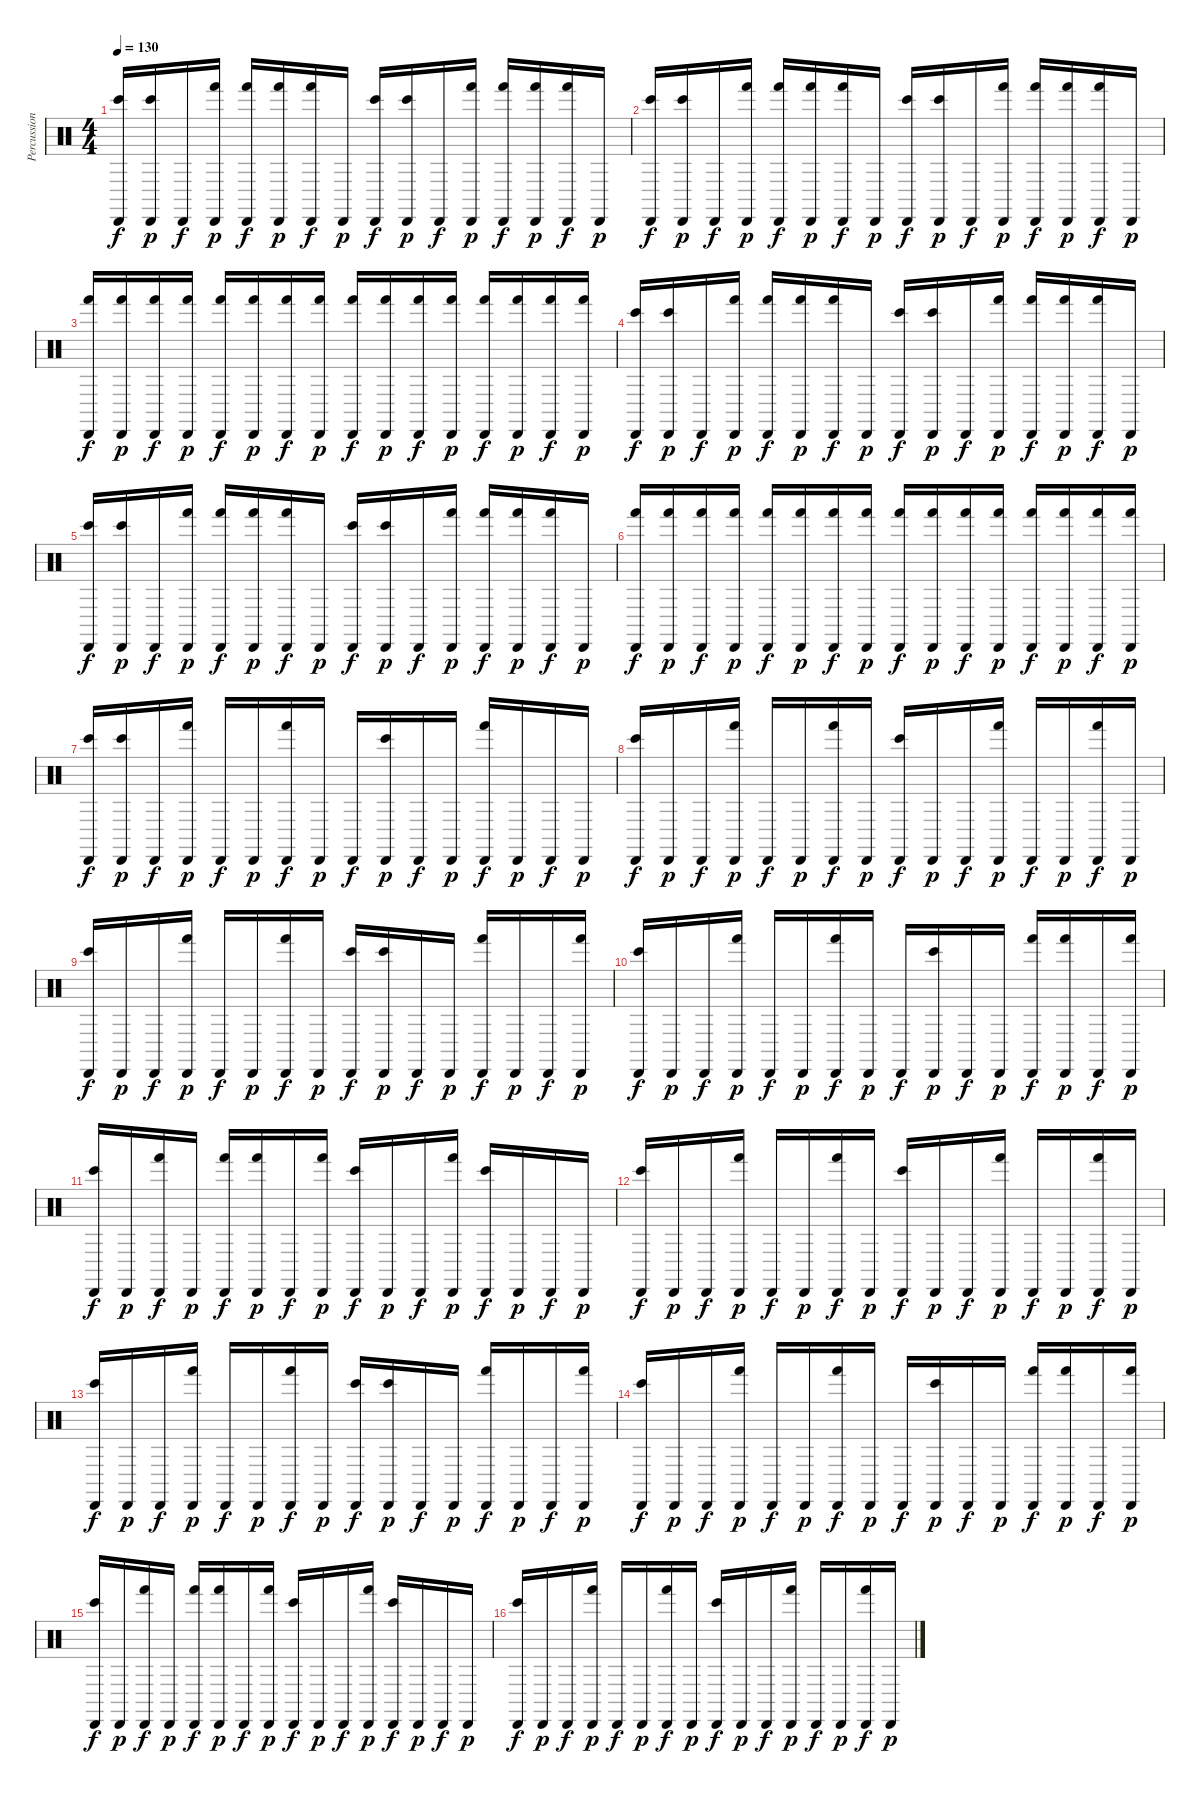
\track ("Percussion" "Percussion") {instrument percussion}
\staff {score}
\articulation defaults
\ts (4 4)
\tempo 130
\clef neutral
\ks c
("Cabasa (hit)" "Bongo High (hit)").16{dy f} ("Cabasa (hit)" "Bongo High (hit)").16{dy p} "Cabasa (hit)".16{dy f} ("Cabasa (hit)" "Hand (hit)").16{dy p} ("Cabasa (hit)" "Hand (hit)").16{dy f} ("Cabasa (hit)" "Hand (hit)").16{dy p} ("Cabasa (hit)" "Hand (hit)").16{dy f} "Cabasa (hit)".16{dy p} ("Cabasa (hit)" "Bongo High (hit)").16{dy f} ("Cabasa (hit)" "Bongo High (hit)").16{dy p} "Cabasa (hit)".16{dy f} ("Cabasa (hit)" "Hand (hit)").16{dy p} ("Cabasa (hit)" "Hand (hit)").16{dy f} ("Cabasa (hit)" "Hand (hit)").16{dy p} ("Cabasa (hit)" "Hand (hit)").16{dy f} "Cabasa (hit)".16{dy p} |
("Cabasa (hit)" "Bongo High (hit)").16{dy f} ("Cabasa (hit)" "Bongo High (hit)").16{dy p} "Cabasa (hit)".16{dy f} ("Cabasa (hit)" "Hand (hit)").16{dy p} ("Cabasa (hit)" "Hand (hit)").16{dy f} ("Cabasa (hit)" "Hand (hit)").16{dy p} ("Cabasa (hit)" "Hand (hit)").16{dy f} "Cabasa (hit)".16{dy p} ("Cabasa (hit)" "Bongo High (hit)").16{dy f} ("Cabasa (hit)" "Bongo High (hit)").16{dy p} "Cabasa (hit)".16{dy f} ("Cabasa (hit)" "Hand (hit)").16{dy p} ("Cabasa (hit)" "Hand (hit)").16{dy f} ("Cabasa (hit)" "Hand (hit)").16{dy p} ("Cabasa (hit)" "Hand (hit)").16{dy f} "Cabasa (hit)".16{dy p} |
("Cabasa (hit)" "Hand (hit)").16{dy f} ("Cabasa (hit)" "Hand (hit)").16{dy p} ("Cabasa (hit)" "Hand (hit)").16{dy f} ("Cabasa (hit)" "Hand (hit)").16{dy p} ("Cabasa (hit)" "Hand (hit)").16{dy f} ("Cabasa (hit)" "Hand (hit)").16{dy p} ("Cabasa (hit)" "Hand (hit)").16{dy f} ("Cabasa (hit)" "Hand (hit)").16{dy p} ("Cabasa (hit)" "Hand (hit)").16{dy f} ("Cabasa (hit)" "Hand (hit)").16{dy p} ("Cabasa (hit)" "Hand (hit)").16{dy f} ("Cabasa (hit)" "Hand (hit)").16{dy p} ("Cabasa (hit)" "Hand (hit)").16{dy f} ("Cabasa (hit)" "Hand (hit)").16{dy p} ("Cabasa (hit)" "Hand (hit)").16{dy f} ("Cabasa (hit)" "Hand (hit)").16{dy p} |
("Cabasa (hit)" "Bongo High (hit)").16{dy f} ("Cabasa (hit)" "Bongo High (hit)").16{dy p} "Cabasa (hit)".16{dy f} ("Cabasa (hit)" "Hand (hit)").16{dy p} ("Cabasa (hit)" "Hand (hit)").16{dy f} ("Cabasa (hit)" "Hand (hit)").16{dy p} ("Cabasa (hit)" "Hand (hit)").16{dy f} "Cabasa (hit)".16{dy p} ("Cabasa (hit)" "Bongo High (hit)").16{dy f} ("Cabasa (hit)" "Bongo High (hit)").16{dy p} "Cabasa (hit)".16{dy f} ("Cabasa (hit)" "Hand (hit)").16{dy p} ("Cabasa (hit)" "Hand (hit)").16{dy f} ("Cabasa (hit)" "Hand (hit)").16{dy p} ("Cabasa (hit)" "Hand (hit)").16{dy f} "Cabasa (hit)".16{dy p} |
("Cabasa (hit)" "Bongo High (hit)").16{dy f} ("Cabasa (hit)" "Bongo High (hit)").16{dy p} "Cabasa (hit)".16{dy f} ("Cabasa (hit)" "Hand (hit)").16{dy p} ("Cabasa (hit)" "Hand (hit)").16{dy f} ("Cabasa (hit)" "Hand (hit)").16{dy p} ("Cabasa (hit)" "Hand (hit)").16{dy f} "Cabasa (hit)".16{dy p} ("Cabasa (hit)" "Bongo High (hit)").16{dy f} ("Cabasa (hit)" "Bongo High (hit)").16{dy p} "Cabasa (hit)".16{dy f} ("Cabasa (hit)" "Hand (hit)").16{dy p} ("Cabasa (hit)" "Hand (hit)").16{dy f} ("Cabasa (hit)" "Hand (hit)").16{dy p} ("Cabasa (hit)" "Hand (hit)").16{dy f} "Cabasa (hit)".16{dy p} |
("Cabasa (hit)" "Hand (hit)").16{dy f} ("Cabasa (hit)" "Hand (hit)").16{dy p} ("Cabasa (hit)" "Hand (hit)").16{dy f} ("Cabasa (hit)" "Hand (hit)").16{dy p} ("Cabasa (hit)" "Hand (hit)").16{dy f} ("Cabasa (hit)" "Hand (hit)").16{dy p} ("Cabasa (hit)" "Hand (hit)").16{dy f} ("Cabasa (hit)" "Hand (hit)").16{dy p} ("Cabasa (hit)" "Hand (hit)").16{dy f} ("Cabasa (hit)" "Hand (hit)").16{dy p} ("Cabasa (hit)" "Hand (hit)").16{dy f} ("Cabasa (hit)" "Hand (hit)").16{dy p} ("Cabasa (hit)" "Hand (hit)").16{dy f} ("Cabasa (hit)" "Hand (hit)").16{dy p} ("Cabasa (hit)" "Hand (hit)").16{dy f} ("Cabasa (hit)" "Hand (hit)").16{dy p} |
("Cabasa (hit)" "Bongo High (hit)").16{dy f} ("Cabasa (hit)" "Bongo High (hit)").16{dy p} "Cabasa (hit)".16{dy f} ("Cabasa (hit)" "Hand (hit)").16{dy p} "Cabasa (hit)".16{dy f} "Cabasa (hit)".16{dy p} ("Cabasa (hit)" "Hand (hit)").16{dy f} "Cabasa (hit)".16{dy p} "Cabasa (hit)".16{dy f} ("Cabasa (hit)" "Bongo High (hit)").16{dy p} "Cabasa (hit)".16{dy f} "Cabasa (hit)".16{dy p} ("Cabasa (hit)" "Hand (hit)").16{dy f} "Cabasa (hit)".16{dy p} "Cabasa (hit)".16{dy f} "Cabasa (hit)".16{dy p} |
("Cabasa (hit)" "Bongo High (hit)").16{dy f} "Cabasa (hit)".16{dy p} "Cabasa (hit)".16{dy f} ("Cabasa (hit)" "Hand (hit)").16{dy p} "Cabasa (hit)".16{dy f} "Cabasa (hit)".16{dy p} ("Cabasa (hit)" "Hand (hit)").16{dy f} "Cabasa (hit)".16{dy p} ("Cabasa (hit)" "Bongo High (hit)").16{dy f} "Cabasa (hit)".16{dy p} "Cabasa (hit)".16{dy f} ("Cabasa (hit)" "Hand (hit)").16{dy p} "Cabasa (hit)".16{dy f} "Cabasa (hit)".16{dy p} ("Cabasa (hit)" "Hand (hit)").16{dy f} "Cabasa (hit)".16{dy p} |
("Cabasa (hit)" "Bongo High (hit)").16{dy f} "Cabasa (hit)".16{dy p} "Cabasa (hit)".16{dy f} ("Cabasa (hit)" "Hand (hit)").16{dy p} "Cabasa (hit)".16{dy f} "Cabasa (hit)".16{dy p} ("Cabasa (hit)" "Hand (hit)").16{dy f} "Cabasa (hit)".16{dy p} ("Cabasa (hit)" "Bongo High (hit)").16{dy f} ("Cabasa (hit)" "Bongo High (hit)").16{dy p} "Cabasa (hit)".16{dy f} "Cabasa (hit)".16{dy p} ("Cabasa (hit)" "Hand (hit)").16{dy f} "Cabasa (hit)".16{dy p} "Cabasa (hit)".16{dy f} ("Cabasa (hit)" "Hand (hit)").16{dy p} |
("Cabasa (hit)" "Bongo High (hit)").16{dy f} "Cabasa (hit)".16{dy p} "Cabasa (hit)".16{dy f} ("Cabasa (hit)" "Hand (hit)").16{dy p} "Cabasa (hit)".16{dy f} "Cabasa (hit)".16{dy p} ("Cabasa (hit)" "Hand (hit)").16{dy f} "Cabasa (hit)".16{dy p} "Cabasa (hit)".16{dy f} ("Cabasa (hit)" "Bongo High (hit)").16{dy p} "Cabasa (hit)".16{dy f} "Cabasa (hit)".16{dy p} ("Cabasa (hit)" "Hand (hit)").16{dy f} ("Cabasa (hit)" "Hand (hit)").16{dy p} "Cabasa (hit)".16{dy f} ("Cabasa (hit)" "Hand (hit)").16{dy p} |
("Cabasa (hit)" "Bongo High (hit)").16{dy f} "Cabasa (hit)".16{dy p} ("Cabasa (hit)" "Hand (hit)").16{dy f} "Cabasa (hit)".16{dy p} ("Cabasa (hit)" "Hand (hit)").16{dy f} ("Cabasa (hit)" "Hand (hit)").16{dy p} "Cabasa (hit)".16{dy f} ("Cabasa (hit)" "Hand (hit)").16{dy p} ("Cabasa (hit)" "Bongo High (hit)").16{dy f} "Cabasa (hit)".16{dy p} "Cabasa (hit)".16{dy f} ("Cabasa (hit)" "Hand (hit)").16{dy p} ("Cabasa (hit)" "Bongo High (hit)").16{dy f} "Cabasa (hit)".16{dy p} "Cabasa (hit)".16{dy f} "Cabasa (hit)".16{dy p} |
("Cabasa (hit)" "Bongo High (hit)").16{dy f} "Cabasa (hit)".16{dy p} "Cabasa (hit)".16{dy f} ("Cabasa (hit)" "Hand (hit)").16{dy p} "Cabasa (hit)".16{dy f} "Cabasa (hit)".16{dy p} ("Cabasa (hit)" "Hand (hit)").16{dy f} "Cabasa (hit)".16{dy p} ("Cabasa (hit)" "Bongo High (hit)").16{dy f} "Cabasa (hit)".16{dy p} "Cabasa (hit)".16{dy f} ("Cabasa (hit)" "Hand (hit)").16{dy p} "Cabasa (hit)".16{dy f} "Cabasa (hit)".16{dy p} ("Cabasa (hit)" "Hand (hit)").16{dy f} "Cabasa (hit)".16{dy p} |
("Cabasa (hit)" "Bongo High (hit)").16{dy f} "Cabasa (hit)".16{dy p} "Cabasa (hit)".16{dy f} ("Cabasa (hit)" "Hand (hit)").16{dy p} "Cabasa (hit)".16{dy f} "Cabasa (hit)".16{dy p} ("Cabasa (hit)" "Hand (hit)").16{dy f} "Cabasa (hit)".16{dy p} ("Cabasa (hit)" "Bongo High (hit)").16{dy f} ("Cabasa (hit)" "Bongo High (hit)").16{dy p} "Cabasa (hit)".16{dy f} "Cabasa (hit)".16{dy p} ("Cabasa (hit)" "Hand (hit)").16{dy f} "Cabasa (hit)".16{dy p} "Cabasa (hit)".16{dy f} ("Cabasa (hit)" "Hand (hit)").16{dy p} |
("Cabasa (hit)" "Bongo High (hit)").16{dy f} "Cabasa (hit)".16{dy p} "Cabasa (hit)".16{dy f} ("Cabasa (hit)" "Hand (hit)").16{dy p} "Cabasa (hit)".16{dy f} "Cabasa (hit)".16{dy p} ("Cabasa (hit)" "Hand (hit)").16{dy f} "Cabasa (hit)".16{dy p} "Cabasa (hit)".16{dy f} ("Cabasa (hit)" "Bongo High (hit)").16{dy p} "Cabasa (hit)".16{dy f} "Cabasa (hit)".16{dy p} ("Cabasa (hit)" "Hand (hit)").16{dy f} ("Cabasa (hit)" "Hand (hit)").16{dy p} "Cabasa (hit)".16{dy f} ("Cabasa (hit)" "Hand (hit)").16{dy p} |
("Cabasa (hit)" "Bongo High (hit)").16{dy f} "Cabasa (hit)".16{dy p} ("Cabasa (hit)" "Hand (hit)").16{dy f} "Cabasa (hit)".16{dy p} ("Cabasa (hit)" "Hand (hit)").16{dy f} ("Cabasa (hit)" "Hand (hit)").16{dy p} "Cabasa (hit)".16{dy f} ("Cabasa (hit)" "Hand (hit)").16{dy p} ("Cabasa (hit)" "Bongo High (hit)").16{dy f} "Cabasa (hit)".16{dy p} "Cabasa (hit)".16{dy f} ("Cabasa (hit)" "Hand (hit)").16{dy p} ("Cabasa (hit)" "Bongo High (hit)").16{dy f} "Cabasa (hit)".16{dy p} "Cabasa (hit)".16{dy f} "Cabasa (hit)".16{dy p} |
("Cabasa (hit)" "Bongo High (hit)").16{dy f} "Cabasa (hit)".16{dy p} "Cabasa (hit)".16{dy f} ("Cabasa (hit)" "Hand (hit)").16{dy p} "Cabasa (hit)".16{dy f} "Cabasa (hit)".16{dy p} ("Cabasa (hit)" "Hand (hit)").16{dy f} "Cabasa (hit)".16{dy p} ("Cabasa (hit)" "Bongo High (hit)").16{dy f} "Cabasa (hit)".16{dy p} "Cabasa (hit)".16{dy f} ("Cabasa (hit)" "Hand (hit)").16{dy p} "Cabasa (hit)".16{dy f} "Cabasa (hit)".16{dy p} ("Cabasa (hit)" "Hand (hit)").16{dy f} "Cabasa (hit)".16{dy p}
